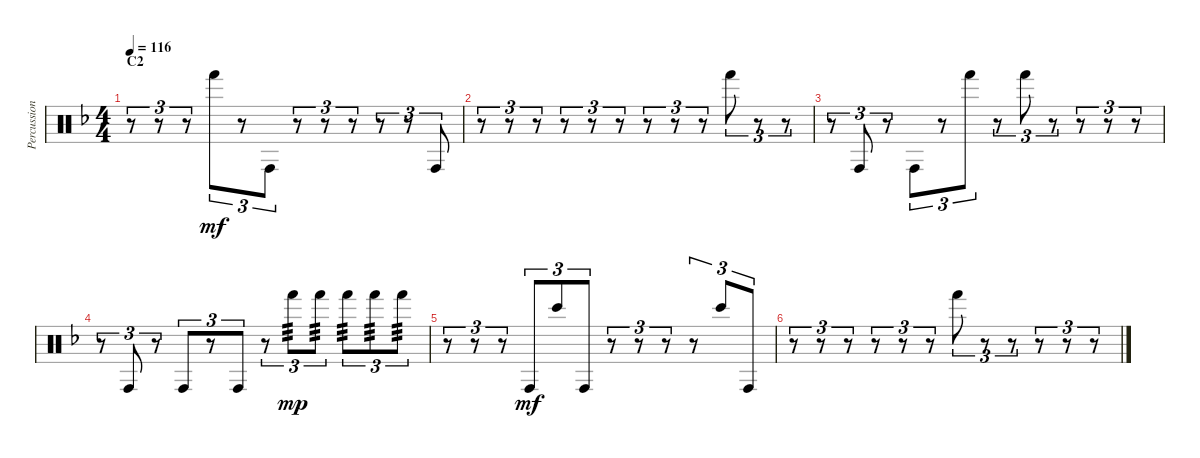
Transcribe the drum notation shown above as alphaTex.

\track ("Percussion" "Percussion") {instrument percussion}
\staff {score}
\articulation defaults
\ts (4 4)
\section ("" "C2")
\tempo 116
\clef neutral
\ks f
r.8{tu (3 2) dy mf} r.8{tu (3 2)} r.8{tu (3 2)} "Hand (hit)".8{tu (3 2)} r.8{tu (3 2)} "Conga high (hit)".8{tu (3 2)} r.8{tu (3 2)} r.8{tu (3 2)} r.8{tu (3 2)} r.8{tu (3 2)} r.8{tu (3 2)} "Conga high (hit)".8{tu (3 2)} |
r.8{tu (3 2)} r.8{tu (3 2)} r.8{tu (3 2)} r.8{tu (3 2)} r.8{tu (3 2)} r.8{tu (3 2)} r.8{tu (3 2)} r.8{tu (3 2)} r.8{tu (3 2)} "Hand (hit)".8{tu (3 2)} r.8{tu (3 2)} r.8{tu (3 2)} |
r.8{tu (3 2)} "Conga high (hit)".8{tu (3 2)} r.8{tu (3 2)} "Conga high (hit)".8{tu (3 2)} r.8{tu (3 2)} "Hand (hit)".8{tu (3 2)} r.8{tu (3 2)} "Hand (hit)".8{tu (3 2)} r.8{tu (3 2)} r.8{tu (3 2)} r.8{tu (3 2)} r.8{tu (3 2)} |
r.8{tu (3 2)} "Conga high (hit)".8{tu (3 2)} r.8{tu (3 2)} "Conga high (hit)".8{tu (3 2)} r.8{tu (3 2)} "Conga high (hit)".8{tu (3 2)} r.8{tu (3 2)} "Hand (hit)".8{tu (3 2) tp 3 dy mp} "Hand (hit)".8{tu (3 2) tp 3} "Hand (hit)".8{tu (3 2) tp 3} "Hand (hit)".8{tu (3 2) tp 3} "Hand (hit)".8{tu (3 2) tp 3} |
r.8{tu (3 2)} r.8{tu (3 2)} r.8{tu (3 2)} "Conga high (hit)".8{tu (3 2) dy mf} "Bongo High (hit)".8{tu (3 2)} "Conga high (hit)".8{tu (3 2)} r.8{tu (3 2)} r.8{tu (3 2)} r.8{tu (3 2)} r.8{tu (3 2)} "Bongo High (hit)".8{tu (3 2)} "Conga high (hit)".8{tu (3 2)} |
r.8{tu (3 2)} r.8{tu (3 2)} r.8{tu (3 2)} r.8{tu (3 2)} r.8{tu (3 2)} r.8{tu (3 2)} "Hand (hit)".8{tu (3 2)} r.8{tu (3 2)} r.8{tu (3 2)} r.8{tu (3 2)} r.8{tu (3 2)} r.8{tu (3 2)}
